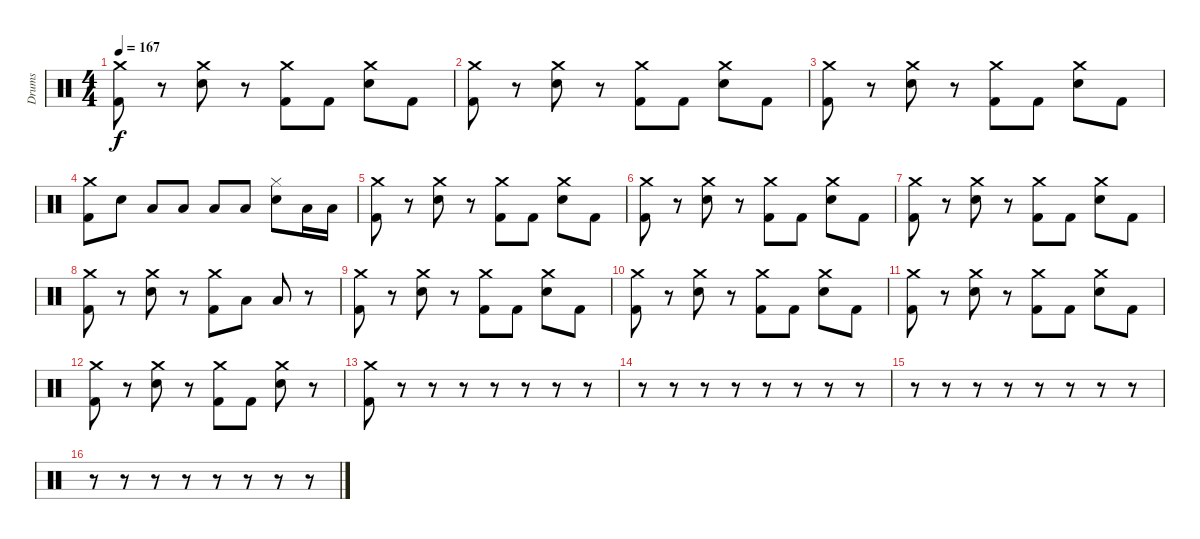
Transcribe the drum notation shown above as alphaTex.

\track ("Drums" "Drums") {instrument percussion}
\staff {score}
\articulation defaults
\ts (4 4)
\tempo 167
\clef neutral
\ks c
("Crash medium (hit)" "Kick (hit) 2").8{dy f} r.8 ("Crash medium (hit)" "Electric Snare (hit)").8 r.8 ("Crash medium (hit)" "Kick (hit) 2").8 "Kick (hit) 2".8 ("Crash medium (hit)" "Electric Snare (hit)").8 "Kick (hit) 2".8 |
("Crash medium (hit)" "Kick (hit) 2").8 r.8 ("Crash medium (hit)" "Electric Snare (hit)").8 r.8 ("Crash medium (hit)" "Kick (hit) 2").8 "Kick (hit) 2".8 ("Crash medium (hit)" "Electric Snare (hit)").8 "Kick (hit) 2".8 |
("Crash medium (hit)" "Kick (hit) 2").8 r.8 ("Crash medium (hit)" "Electric Snare (hit)").8 r.8 ("Crash medium (hit)" "Kick (hit) 2").8 "Kick (hit) 2".8 ("Crash medium (hit)" "Electric Snare (hit)").8 "Kick (hit) 2".8 |
("Crash medium (hit)" "Kick (hit) 2").8 "Electric Snare (hit)".8 "Low Tom (hit)".8 "Low Tom (hit)".8 "Low Tom (hit)".8 "Low Tom (hit)".8 ("Hi-Hat (closed)" "Electric Snare (hit)").8 "Low Tom (hit)".16 "Low Tom (hit)".16 |
("Crash medium (hit)" "Kick (hit) 2").8 r.8 ("Crash medium (hit)" "Electric Snare (hit)").8 r.8 ("Crash medium (hit)" "Kick (hit) 2").8 "Kick (hit) 2".8 ("Crash medium (hit)" "Electric Snare (hit)").8 "Kick (hit) 2".8 |
("Crash medium (hit)" "Kick (hit) 2").8 r.8 ("Crash medium (hit)" "Electric Snare (hit)").8 r.8 ("Crash medium (hit)" "Kick (hit) 2").8 "Kick (hit) 2".8 ("Crash medium (hit)" "Electric Snare (hit)").8 "Kick (hit) 2".8 |
("Crash medium (hit)" "Kick (hit) 2").8 r.8 ("Crash medium (hit)" "Electric Snare (hit)").8 r.8 ("Crash medium (hit)" "Kick (hit) 2").8 "Kick (hit) 2".8 ("Crash medium (hit)" "Electric Snare (hit)").8 "Kick (hit) 2".8 |
("Crash medium (hit)" "Kick (hit) 2").8 r.8 ("Crash medium (hit)" "Electric Snare (hit)").8 r.8 ("Crash medium (hit)" "Kick (hit) 2").8 "Low Tom (hit)".8 "Low Tom (hit)".8 r.8 |
("Crash medium (hit)" "Kick (hit) 2").8 r.8 ("Crash medium (hit)" "Electric Snare (hit)").8 r.8 ("Crash medium (hit)" "Kick (hit) 2").8 "Kick (hit) 2".8 ("Crash medium (hit)" "Electric Snare (hit)").8 "Kick (hit) 2".8 |
("Crash medium (hit)" "Kick (hit) 2").8 r.8 ("Crash medium (hit)" "Electric Snare (hit)").8 r.8 ("Crash medium (hit)" "Kick (hit) 2").8 "Kick (hit) 2".8 ("Crash medium (hit)" "Electric Snare (hit)").8 "Kick (hit) 2".8 |
("Crash medium (hit)" "Kick (hit) 2").8 r.8 ("Crash medium (hit)" "Electric Snare (hit)").8 r.8 ("Crash medium (hit)" "Kick (hit) 2").8 "Kick (hit) 2".8 ("Crash medium (hit)" "Electric Snare (hit)").8 "Kick (hit) 2".8 |
("Crash medium (hit)" "Kick (hit) 2").8 r.8 ("Crash medium (hit)" "Electric Snare (hit)").8 r.8 ("Crash medium (hit)" "Kick (hit) 2").8 "Kick (hit) 2".8 ("Crash medium (hit)" "Electric Snare (hit)").8 r.8 |
("Crash medium (hit)" "Kick (hit) 2").8 r.8 r.8 r.8 r.8 r.8 r.8 r.8 |
r.8 r.8 r.8 r.8 r.8 r.8 r.8 r.8 |
r.8 r.8 r.8 r.8 r.8 r.8 r.8 r.8 |
r.8 r.8 r.8 r.8 r.8 r.8 r.8 r.8
